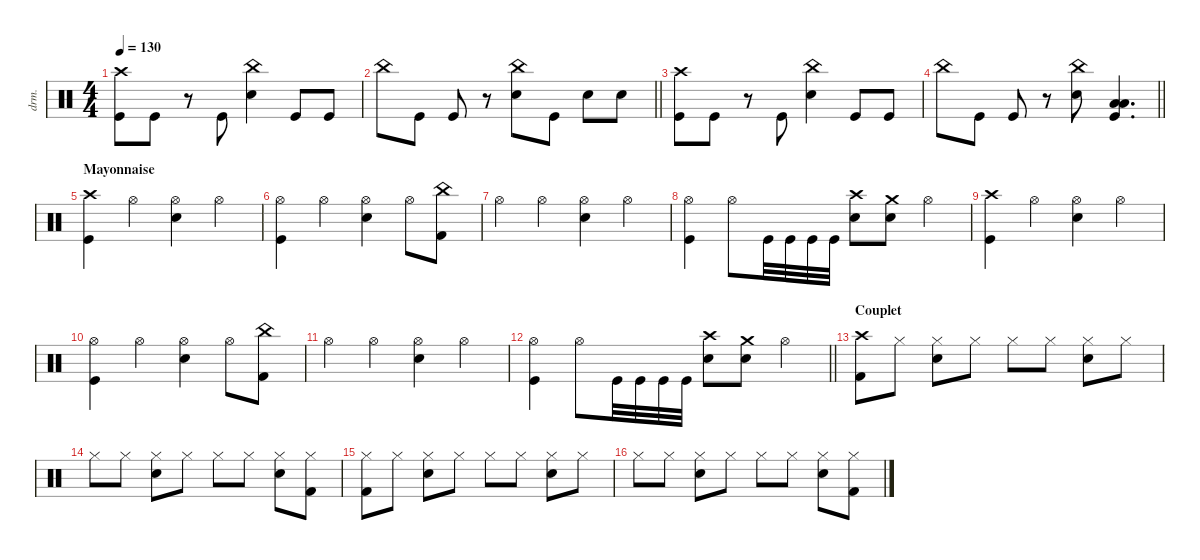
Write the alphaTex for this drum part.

\defaultSystemsLayout 4
\hideDynamics
\bracketExtendMode nobrackets
\track ("Manouche" "drm.") {solo instrument percussion}
\staff {score}
\articulation defaults
\ts (4 4)
\tempo 130
\clef neutral
\ks c
("Crash high (hit)" "Kick (hit)").8{dy f beam Down} "Kick (hit)".8{beam Down} r.8{beam Down} "Kick (hit)".8{beam Up} ("China (hit)" "Snare (hit) 2").4{beam Down} "Kick (hit)".8{beam Up} "Kick (hit)".8{beam Up} |
\barLineRight lightlight "China (hit)".8{beam Down} "Kick (hit)".8{beam Down} "Kick (hit)".8{beam Up}
r.8{beam Down} ("China (hit)" "Snare (hit) 2").8{beam Down} "Kick (hit)".8{beam Down} "Snare (hit) 2".8{beam Down} "Snare (hit) 2".8{beam Down} |
("Crash high (hit)" "Kick (hit)").8{beam Down} "Kick (hit)".8{beam Down} r.8{beam Down} "Kick (hit)".8{beam Up} ("China (hit)" "Snare (hit) 2").4{beam Down} "Kick (hit)".8{beam Up} "Kick (hit)".8{beam Up} |
\barLineRight lightlight "China (hit)".8{beam Down} "Kick (hit)".8{beam Down} "Kick (hit)".8{beam Up}
r.8{beam Down} ("China (hit)" "Snare (hit) 2").8{beam Down} ("Low Tom (hit)" "Kick (hit)" "Low Floor Tom (hit)").4{d dy ff beam Up} |
\section ("" "Mayonnaise")
("Crash high (hit)" "Kick (hit)").4{dy f beam Down} "Hi-Hat (open)".4{beam Down} ("Hi-Hat (open)" "Snare (hit) 2").4{beam Down} "Hi-Hat (open)".4{beam Down} |
("Hi-Hat (open)" "Kick (hit)").4{beam Down} "Hi-Hat (open)".4{beam Down} ("Hi-Hat (open)" "Snare (hit) 2").4{beam Down} "Hi-Hat (open)".8{beam Down} ("China (hit)" "Kick (hit) 2").8{beam Down} |
"Hi-Hat (open)".4{beam Down} "Hi-Hat (open)".4{beam Down} ("Hi-Hat (open)" "Snare (hit) 2").4{beam Down} "Hi-Hat (open)".4{beam Down} |
("Hi-Hat (open)" "Kick (hit)").4{beam Down} "Hi-Hat (open)".8{beam Down} "Kick (hit)".32{beam Down} "Kick (hit)".32{beam Down} "Kick (hit)".32{beam Down} "Kick (hit)".32{beam Down} ("Snare (hit) 2" "Crash high (hit)").8{beam Down} ("Crash medium (hit)" "Snare (hit) 2").8{beam Down} "Hi-Hat (open)".4{beam Down} |
("Crash high (hit)" "Kick (hit)").4{beam Down} "Hi-Hat (open)".4{beam Down} ("Hi-Hat (open)" "Snare (hit) 2").4{beam Down} "Hi-Hat (open)".4{beam Down} |
("Hi-Hat (open)" "Kick (hit)").4{beam Down} "Hi-Hat (open)".4{beam Down} ("Hi-Hat (open)" "Snare (hit) 2").4{beam Down} "Hi-Hat (open)".8{beam Down} ("China (hit)" "Kick (hit) 2").8{beam Down} |
"Hi-Hat (open)".4{beam Down} "Hi-Hat (open)".4{beam Down} ("Hi-Hat (open)" "Snare (hit) 2").4{beam Down} "Hi-Hat (open)".4{beam Down} |
\barLineRight lightlight
("Hi-Hat (open)" "Kick (hit)").4{beam Down} "Hi-Hat (open)".8{beam Down} "Kick (hit)".32{beam Down} "Kick (hit)".32{beam Down} "Kick (hit)".32{beam Down} "Kick (hit)".32{beam Down} ("Snare (hit) 2" "Crash high (hit)").8{beam Down} ("Crash medium (hit)" "Snare (hit) 2").8{beam Down} "Hi-Hat (open)".4{beam Down} |
\section ("" "Couplet")
("Crash high (hit)" "Kick (hit) 2").8{beam Down} "Hi-Hat (closed)".8{dy mp beam Down} ("Hi-Hat (closed)" "Snare (hit) 2").8{dy f beam Down} "Hi-Hat (closed)".8{dy mp beam Down} "Hi-Hat (closed)".8{dy f beam Down} "Hi-Hat (closed)".8{dy mp beam Down} ("Hi-Hat (closed)" "Snare (hit) 2").8{dy f beam Down} "Hi-Hat (closed)".8{dy mp beam Down} |
"Hi-Hat (closed)".8{dy f beam Down} "Hi-Hat (closed)".8{dy mp beam Down} ("Hi-Hat (closed)" "Snare (hit) 2").8{dy f beam Down} "Hi-Hat (closed)".8{dy mp beam Down} "Hi-Hat (closed)".8{dy f beam Down} "Hi-Hat (closed)".8{dy mp beam Down} ("Hi-Hat (closed)" "Snare (hit) 2").8{dy f beam Down} ("Hi-Hat (closed)" "Kick (hit) 2").8{dy mp beam Down} |
("Hi-Hat (closed)" "Kick (hit) 2").8{beam Down} "Hi-Hat (closed)".8{beam Down} ("Hi-Hat (closed)" "Snare (hit) 2").8{dy f beam Down} "Hi-Hat (closed)".8{dy mp beam Down} "Hi-Hat (closed)".8{dy f beam Down} "Hi-Hat (closed)".8{dy mp beam Down} ("Hi-Hat (closed)" "Snare (hit) 2").8{dy f beam Down} "Hi-Hat (closed)".8{dy mp beam Down} |
"Hi-Hat (closed)".8{dy f beam Down} "Hi-Hat (closed)".8{dy mp beam Down} ("Hi-Hat (closed)" "Snare (hit) 2").8{dy f beam Down} "Hi-Hat (closed)".8{dy mp beam Down} "Hi-Hat (closed)".8{dy f beam Down} "Hi-Hat (closed)".8{dy mp beam Down} ("Hi-Hat (closed)" "Snare (hit) 2").8{dy f beam Down} ("Hi-Hat (closed)" "Kick (hit) 2").8{dy mp beam Down}
